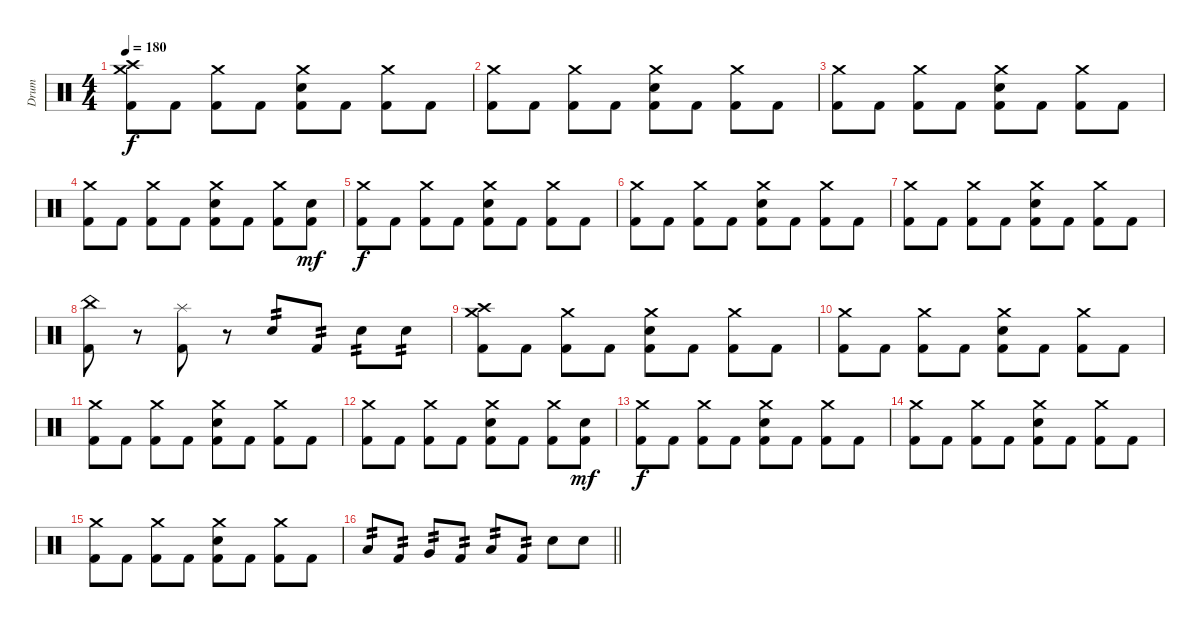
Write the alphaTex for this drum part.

\track ("Drum" "Drum") {instrument percussion}
\staff {score}
\articulation defaults
\ts (4 4)
\section ("" "")
\tempo 180
\clef neutral
\ks c
("Crash medium (hit)" "Crash high (hit)" "Kick (hit) 2").8{dy f} "Kick (hit) 2".8 ("Crash medium (hit)" "Kick (hit) 2").8 "Kick (hit) 2".8 ("Crash medium (hit)" "Snare (hit) 2" "Kick (hit) 2").8 "Kick (hit) 2".8 ("Crash medium (hit)" "Kick (hit) 2").8 "Kick (hit) 2".8 |
("Crash medium (hit)" "Kick (hit) 2").8 "Kick (hit) 2".8 ("Crash medium (hit)" "Kick (hit) 2").8 "Kick (hit) 2".8 ("Crash medium (hit)" "Snare (hit) 2" "Kick (hit) 2").8 "Kick (hit) 2".8 ("Crash medium (hit)" "Kick (hit) 2").8 "Kick (hit) 2".8 |
("Crash medium (hit)" "Kick (hit) 2").8 "Kick (hit) 2".8 ("Crash medium (hit)" "Kick (hit) 2").8 "Kick (hit) 2".8 ("Crash medium (hit)" "Snare (hit) 2" "Kick (hit) 2").8 "Kick (hit) 2".8 ("Crash medium (hit)" "Kick (hit) 2").8 "Kick (hit) 2".8 |
("Crash medium (hit)" "Kick (hit) 2").8 "Kick (hit) 2".8 ("Crash medium (hit)" "Kick (hit) 2").8 "Kick (hit) 2".8 ("Crash medium (hit)" "Snare (hit) 2" "Kick (hit) 2").8 "Kick (hit) 2".8 ("Crash medium (hit)" "Kick (hit) 2").8 ("Snare (hit) 2" "Kick (hit) 2").8{dy mf} |
("Crash medium (hit)" "Kick (hit) 2").8{dy f} "Kick (hit) 2".8 ("Crash medium (hit)" "Kick (hit) 2").8 "Kick (hit) 2".8 ("Crash medium (hit)" "Snare (hit) 2" "Kick (hit) 2").8 "Kick (hit) 2".8 ("Crash medium (hit)" "Kick (hit) 2").8 "Kick (hit) 2".8 |
("Crash medium (hit)" "Kick (hit) 2").8 "Kick (hit) 2".8 ("Crash medium (hit)" "Kick (hit) 2").8 "Kick (hit) 2".8 ("Crash medium (hit)" "Snare (hit) 2" "Kick (hit) 2").8 "Kick (hit) 2".8 ("Crash medium (hit)" "Kick (hit) 2").8 "Kick (hit) 2".8 |
("Crash medium (hit)" "Kick (hit) 2").8 "Kick (hit) 2".8 ("Crash medium (hit)" "Kick (hit) 2").8 "Kick (hit) 2".8 ("Crash medium (hit)" "Snare (hit) 2" "Kick (hit) 2").8 "Kick (hit) 2".8 ("Crash medium (hit)" "Kick (hit) 2").8 "Kick (hit) 2".8 |
("China (hit)" "Kick (hit) 2").8 r.8 ("Splash (hit)" "Kick (hit) 2").8 r.8 "Snare (hit) 2".8{tp 2} "Kick (hit) 2".8{tp 2} "Snare (hit) 2".8{tp 2} "Snare (hit) 2".8{tp 2} |
("Crash medium (hit)" "Crash high (hit)" "Kick (hit) 2").8 "Kick (hit) 2".8 ("Crash medium (hit)" "Kick (hit) 2").8 "Kick (hit) 2".8 ("Crash medium (hit)" "Snare (hit) 2" "Kick (hit) 2").8 "Kick (hit) 2".8 ("Crash medium (hit)" "Kick (hit) 2").8 "Kick (hit) 2".8 |
("Crash medium (hit)" "Kick (hit) 2").8 "Kick (hit) 2".8 ("Crash medium (hit)" "Kick (hit) 2").8 "Kick (hit) 2".8 ("Crash medium (hit)" "Snare (hit) 2" "Kick (hit) 2").8 "Kick (hit) 2".8 ("Crash medium (hit)" "Kick (hit) 2").8 "Kick (hit) 2".8 |
("Crash medium (hit)" "Kick (hit) 2").8 "Kick (hit) 2".8 ("Crash medium (hit)" "Kick (hit) 2").8 "Kick (hit) 2".8 ("Crash medium (hit)" "Snare (hit) 2" "Kick (hit) 2").8 "Kick (hit) 2".8 ("Crash medium (hit)" "Kick (hit) 2").8 "Kick (hit) 2".8 |
("Crash medium (hit)" "Kick (hit) 2").8 "Kick (hit) 2".8 ("Crash medium (hit)" "Kick (hit) 2").8 "Kick (hit) 2".8 ("Crash medium (hit)" "Snare (hit) 2" "Kick (hit) 2").8 "Kick (hit) 2".8 ("Crash medium (hit)" "Kick (hit) 2").8 ("Snare (hit) 2" "Kick (hit) 2").8{dy mf} |
("Crash medium (hit)" "Kick (hit) 2").8{dy f} "Kick (hit) 2".8 ("Crash medium (hit)" "Kick (hit) 2").8 "Kick (hit) 2".8 ("Crash medium (hit)" "Snare (hit) 2" "Kick (hit) 2").8 "Kick (hit) 2".8 ("Crash medium (hit)" "Kick (hit) 2").8 "Kick (hit) 2".8 |
("Crash medium (hit)" "Kick (hit) 2").8 "Kick (hit) 2".8 ("Crash medium (hit)" "Kick (hit) 2").8 "Kick (hit) 2".8 ("Crash medium (hit)" "Snare (hit) 2" "Kick (hit) 2").8 "Kick (hit) 2".8 ("Crash medium (hit)" "Kick (hit) 2").8 "Kick (hit) 2".8 |
("Crash medium (hit)" "Kick (hit) 2").8 "Kick (hit) 2".8 ("Crash medium (hit)" "Kick (hit) 2").8 "Kick (hit) 2".8 ("Crash medium (hit)" "Snare (hit) 2" "Kick (hit) 2").8 "Kick (hit) 2".8 ("Crash medium (hit)" "Kick (hit) 2").8 "Kick (hit) 2".8 |
\barLineRight lightlight "Low Tom (hit)".8{tp 2} "Kick (hit) 2".8{tp 2} "Very Low Tom (hit)".8{tp 2} "Kick (hit) 2".8{tp 2} "Low Floor Tom (hit)".8{tp 2} "Kick (hit) 2".8{tp 2} "Snare (hit) 2".8 "Snare (hit) 2".8
